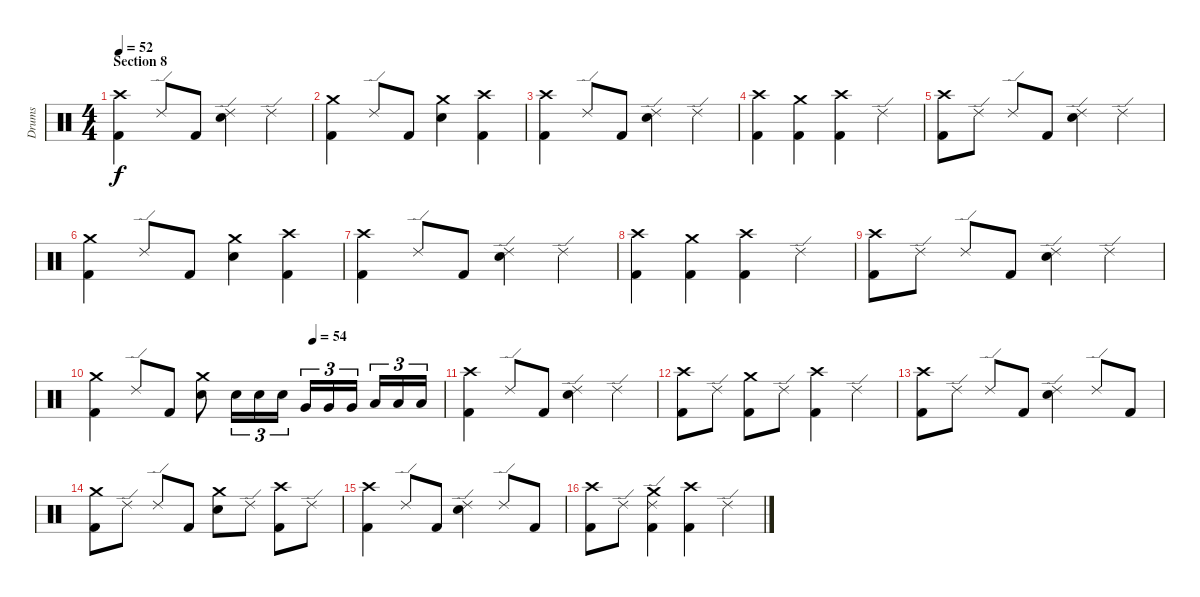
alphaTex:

\track ("Drums" "Drums") {instrument percussion}
\staff {score}
\articulation defaults
\ts (4 4)
\section ("" "Section 8")
\tempo 52
\clef neutral
\ks c
("Crash high (hit)" "Kick (hit) 2").4{dy f} "Ride (edge) 2".8 "Kick (hit) 2".8 ("Ride (edge) 2" "Electric Snare (hit)").4 "Ride (edge) 2".4 |
("Crash medium (hit)" "Kick (hit) 2").4 "Ride (edge) 2".8 "Kick (hit) 2".8 ("Crash medium (hit)" "Electric Snare (hit)").4 ("Crash high (hit)" "Kick (hit) 2").4 |
("Crash high (hit)" "Kick (hit) 2").4 "Ride (edge) 2".8 "Kick (hit) 2".8 ("Ride (edge) 2" "Electric Snare (hit)").4 "Ride (edge) 2".4 |
("Crash high (hit)" "Kick (hit) 2").4 ("Crash medium (hit)" "Kick (hit) 2").4 ("Crash high (hit)" "Kick (hit) 2").4 "Ride (edge) 2".4 |
("Crash high (hit)" "Kick (hit) 2").8 "Ride (edge) 2".8 "Ride (edge) 2".8 "Kick (hit) 2".8 ("Ride (edge) 2" "Electric Snare (hit)").4 "Ride (edge) 2".4 |
("Crash medium (hit)" "Kick (hit) 2").4 "Ride (edge) 2".8 "Kick (hit) 2".8 ("Crash medium (hit)" "Electric Snare (hit)").4 ("Crash high (hit)" "Kick (hit) 2").4 |
("Crash high (hit)" "Kick (hit) 2").4 "Ride (edge) 2".8 "Kick (hit) 2".8 ("Ride (edge) 2" "Electric Snare (hit)").4 "Ride (edge) 2".4 |
("Crash high (hit)" "Kick (hit) 2").4 ("Crash medium (hit)" "Kick (hit) 2").4 ("Crash high (hit)" "Kick (hit) 2").4 "Ride (edge) 2".4 |
("Crash high (hit)" "Kick (hit) 2").8 "Ride (edge) 2".8 "Ride (edge) 2".8 "Kick (hit) 2".8 ("Ride (edge) 2" "Electric Snare (hit)").4 "Ride (edge) 2".4 |
\tempo (54 0.625)
("Crash medium (hit)" "Kick (hit) 2").4 "Ride (edge) 2".8 "Kick (hit) 2".8 ("Crash medium (hit)" "Electric Snare (hit)").8 "Electric Snare (hit)".16{tu (3 2)} "Electric Snare (hit)".16{tu (3 2)} "Electric Snare (hit)".16{tu (3 2)} "Very Low Tom (hit)".16{tu (3 2)} "Very Low Tom (hit)".16{tu (3 2)} "Very Low Tom (hit)".16{tu (3 2) beam splitsecondary} "Low Tom (hit)".16{tu (3 2)} "Low Tom (hit)".16{tu (3 2)} "Low Tom (hit)".16{tu (3 2)} |
("Crash high (hit)" "Kick (hit) 2").4 "Ride (edge) 2".8 "Kick (hit) 2".8 ("Ride (edge) 2" "Electric Snare (hit)").4 "Ride (edge) 2".4 |
("Crash high (hit)" "Kick (hit) 2").8 "Ride (edge) 2".8 ("Crash medium (hit)" "Kick (hit) 2").8 "Ride (edge) 2".8 ("Crash high (hit)" "Kick (hit) 2").4 "Ride (edge) 2".4 |
("Crash high (hit)" "Kick (hit) 2").8 "Ride (edge) 2".8 "Ride (edge) 2".8 "Kick (hit) 2".8 ("Ride (edge) 2" "Electric Snare (hit)").4 "Ride (edge) 2".8 "Kick (hit) 2".8 |
("Crash medium (hit)" "Kick (hit) 2").8 "Ride (edge) 2".8 "Ride (edge) 2".8 "Kick (hit) 2".8 ("Crash medium (hit)" "Electric Snare (hit)").8 "Ride (edge) 2".8 ("Crash high (hit)" "Kick (hit) 2").8 "Ride (edge) 2".8 |
("Crash high (hit)" "Kick (hit) 2").4 "Ride (edge) 2".8 "Kick (hit) 2".8 ("Ride (edge) 2" "Electric Snare (hit)").4 "Ride (edge) 2".8 "Kick (hit) 2".8 |
("Crash high (hit)" "Kick (hit) 2").8 "Ride (edge) 2".8 ("Crash medium (hit)" "Ride (edge) 2" "Kick (hit) 2").4 ("Crash high (hit)" "Kick (hit) 2").4 "Ride (edge) 2".4
